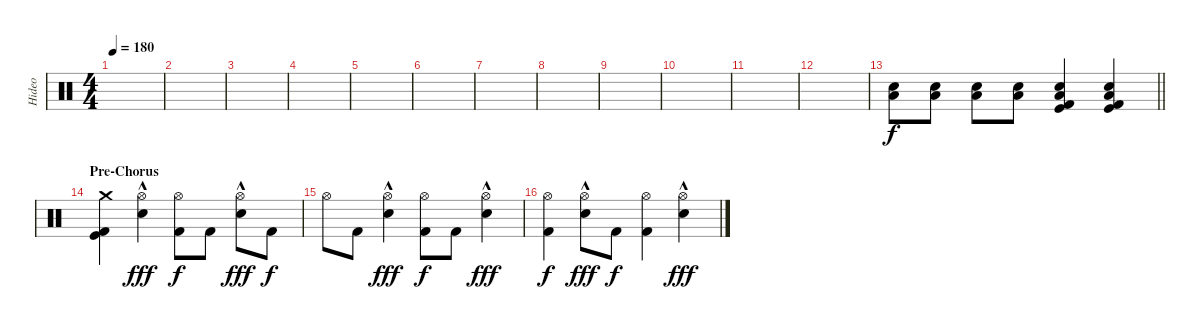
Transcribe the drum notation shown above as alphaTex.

\track ("Hideo" "Hideo") {instrument percussion}
\staff {score}
\articulation defaults
\ts (4 4)
\tempo 180
\clef neutral
\ks c
|
|
|
|
|
|
|
|
|
|
|
|
\barLineRight lightlight
("Electric Snare (hit)" "Low Floor Tom (hit)").8 ("Electric Snare (hit)" "Low Floor Tom (hit)").8 ("Electric Snare (hit)" "Low Floor Tom (hit)").8 ("Electric Snare (hit)" "Low Floor Tom (hit)").8 ("Electric Snare (hit)" "Low Floor Tom (hit)" "Kick (hit)" "Kick (hit) 2").4 ("Electric Snare (hit)" "Low Floor Tom (hit)" "Kick (hit)" "Kick (hit) 2").4 |
\section ("" "Pre-Chorus")
("Crash medium (hit)" "Kick (hit) 2" "Kick (hit)").4 ("Hi-Hat (open)"{hac} "Electric Snare (hit)").4{dy fff} ("Hi-Hat (open)" "Kick (hit) 2").8{dy f} "Kick (hit) 2".8 ("Hi-Hat (open)"{hac} "Electric Snare (hit)").8{dy fff} "Kick (hit) 2".8{dy f} |
"Hi-Hat (open)".8 "Kick (hit) 2".8 ("Hi-Hat (open)"{hac} "Electric Snare (hit)").4{dy fff} ("Hi-Hat (open)" "Kick (hit) 2").8{dy f} "Kick (hit) 2".8 ("Hi-Hat (open)"{hac} "Electric Snare (hit)").4{dy fff} |
("Hi-Hat (open)" "Kick (hit) 2").4{dy f} ("Hi-Hat (open)"{hac} "Electric Snare (hit)").8{dy fff} "Kick (hit) 2".8{dy f} ("Hi-Hat (open)" "Kick (hit) 2").4 ("Hi-Hat (open)"{hac} "Electric Snare (hit)").4{dy fff}
